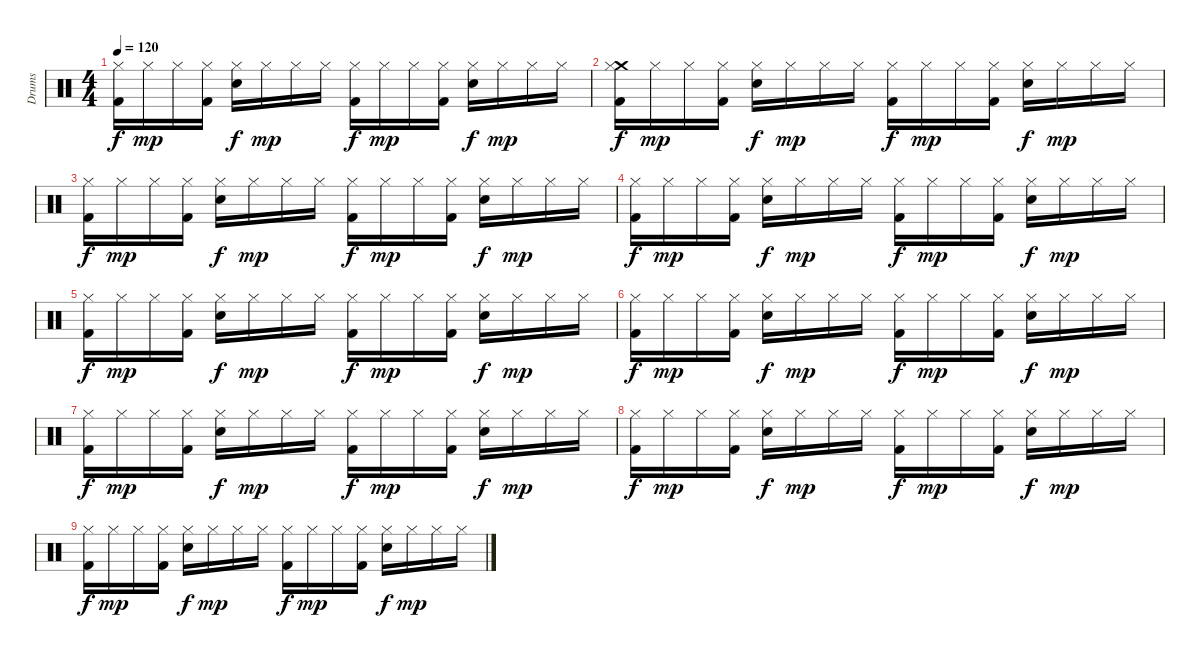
\track ("Drums" "Drums") {instrument percussion}
\staff {score}
\articulation defaults
\ts (4 4)
\tempo 120
\clef neutral
\ks c
("Kick (hit) 2" "Hi-Hat (closed)").16{dy f volume 12} "Hi-Hat (closed)".16{dy mp} "Hi-Hat (closed)".16{volume 12} ("Kick (hit) 2" "Hi-Hat (closed)").16 ("Snare (hit) 2" "Hi-Hat (closed)").16{dy f volume 12} "Hi-Hat (closed)".16{dy mp volume 12} "Hi-Hat (closed)".16 "Hi-Hat (closed)".16{volume 12} ("Kick (hit) 2" "Hi-Hat (closed)").16{dy f volume 12} "Hi-Hat (closed)".16{dy mp} "Hi-Hat (closed)".16{volume 12} ("Kick (hit) 2" "Hi-Hat (closed)").16 ("Snare (hit) 2" "Hi-Hat (closed)").16{dy f volume 12} "Hi-Hat (closed)".16{dy mp volume 11} "Hi-Hat (closed)".16 "Hi-Hat (closed)".16{volume 11} |
("Kick (hit) 2" "Crash medium (hit)" "Hi-Hat (closed)").16{dy f volume 11} "Hi-Hat (closed)".16{dy mp} "Hi-Hat (closed)".16{volume 11} ("Kick (hit) 2" "Hi-Hat (closed)").16 ("Snare (hit) 2" "Hi-Hat (closed)").16{dy f volume 11} "Hi-Hat (closed)".16{dy mp volume 11} "Hi-Hat (closed)".16 "Hi-Hat (closed)".16{volume 11} ("Kick (hit) 2" "Hi-Hat (closed)").16{dy f volume 10} "Hi-Hat (closed)".16{dy mp} "Hi-Hat (closed)".16{volume 10} ("Kick (hit) 2" "Hi-Hat (closed)").16 ("Snare (hit) 2" "Hi-Hat (closed)").16{dy f volume 10} "Hi-Hat (closed)".16{dy mp volume 10} "Hi-Hat (closed)".16 "Hi-Hat (closed)".16{volume 10} |
("Kick (hit) 2" "Hi-Hat (closed)").16{dy f volume 10} "Hi-Hat (closed)".16{dy mp} "Hi-Hat (closed)".16{volume 10} ("Kick (hit) 2" "Hi-Hat (closed)").16 ("Snare (hit) 2" "Hi-Hat (closed)").16{dy f volume 10} "Hi-Hat (closed)".16{dy mp volume 9} "Hi-Hat (closed)".16 "Hi-Hat (closed)".16{volume 9} ("Kick (hit) 2" "Hi-Hat (closed)").16{dy f volume 9} "Hi-Hat (closed)".16{dy mp} "Hi-Hat (closed)".16{volume 9} ("Kick (hit) 2" "Hi-Hat (closed)").16 ("Snare (hit) 2" "Hi-Hat (closed)").16{dy f volume 9} "Hi-Hat (closed)".16{dy mp volume 9} "Hi-Hat (closed)".16 "Hi-Hat (closed)".16{volume 8} |
("Kick (hit) 2" "Hi-Hat (closed)").16{dy f volume 8} "Hi-Hat (closed)".16{dy mp} "Hi-Hat (closed)".16{volume 8} ("Kick (hit) 2" "Hi-Hat (closed)").16 ("Snare (hit) 2" "Hi-Hat (closed)").16{dy f volume 8} "Hi-Hat (closed)".16{dy mp volume 8} "Hi-Hat (closed)".16 "Hi-Hat (closed)".16{volume 8} ("Kick (hit) 2" "Hi-Hat (closed)").16{dy f volume 8} "Hi-Hat (closed)".16{dy mp} "Hi-Hat (closed)".16{volume 8} ("Kick (hit) 2" "Hi-Hat (closed)").16 ("Snare (hit) 2" "Hi-Hat (closed)").16{dy f volume 7} "Hi-Hat (closed)".16{dy mp volume 7} "Hi-Hat (closed)".16 "Hi-Hat (closed)".16{volume 7} |
("Kick (hit) 2" "Hi-Hat (closed)").16{dy f volume 7} "Hi-Hat (closed)".16{dy mp} "Hi-Hat (closed)".16{volume 7} ("Kick (hit) 2" "Hi-Hat (closed)").16 ("Snare (hit) 2" "Hi-Hat (closed)").16{dy f volume 7} "Hi-Hat (closed)".16{dy mp volume 6} "Hi-Hat (closed)".16 "Hi-Hat (closed)".16{volume 6} ("Kick (hit) 2" "Hi-Hat (closed)").16{dy f volume 6} "Hi-Hat (closed)".16{dy mp} "Hi-Hat (closed)".16{volume 6} ("Kick (hit) 2" "Hi-Hat (closed)").16{volume 6} ("Snare (hit) 2" "Hi-Hat (closed)").16{dy f} "Hi-Hat (closed)".16{dy mp volume 6} "Hi-Hat (closed)".16 "Hi-Hat (closed)".16{volume 6} |
("Kick (hit) 2" "Hi-Hat (closed)").16{dy f volume 6} "Hi-Hat (closed)".16{dy mp} "Hi-Hat (closed)".16{volume 6} ("Kick (hit) 2" "Hi-Hat (closed)").16{volume 5} ("Snare (hit) 2" "Hi-Hat (closed)").16{dy f} "Hi-Hat (closed)".16{dy mp volume 5} "Hi-Hat (closed)".16 "Hi-Hat (closed)".16{volume 5} ("Kick (hit) 2" "Hi-Hat (closed)").16{dy f volume 5} "Hi-Hat (closed)".16{dy mp} "Hi-Hat (closed)".16{volume 5} ("Kick (hit) 2" "Hi-Hat (closed)").16{volume 5} ("Snare (hit) 2" "Hi-Hat (closed)").16{dy f} "Hi-Hat (closed)".16{dy mp volume 4} "Hi-Hat (closed)".16 "Hi-Hat (closed)".16{volume 4} |
("Kick (hit) 2" "Hi-Hat (closed)").16{dy f volume 4} "Hi-Hat (closed)".16{dy mp} "Hi-Hat (closed)".16{volume 4} ("Kick (hit) 2" "Hi-Hat (closed)").16{volume 4} ("Snare (hit) 2" "Hi-Hat (closed)").16{dy f} "Hi-Hat (closed)".16{dy mp volume 4} "Hi-Hat (closed)".16 "Hi-Hat (closed)".16{volume 4} ("Kick (hit) 2" "Hi-Hat (closed)").16{dy f volume 4} "Hi-Hat (closed)".16{dy mp} "Hi-Hat (closed)".16{volume 3} ("Kick (hit) 2" "Hi-Hat (closed)").16{volume 3} ("Snare (hit) 2" "Hi-Hat (closed)").16{dy f} "Hi-Hat (closed)".16{dy mp volume 3} "Hi-Hat (closed)".16 "Hi-Hat (closed)".16{volume 3} |
("Kick (hit) 2" "Hi-Hat (closed)").16{dy f volume 3} "Hi-Hat (closed)".16{dy mp} "Hi-Hat (closed)".16{volume 3} ("Kick (hit) 2" "Hi-Hat (closed)").16{volume 2} ("Snare (hit) 2" "Hi-Hat (closed)").16{dy f} "Hi-Hat (closed)".16{dy mp volume 2} "Hi-Hat (closed)".16 "Hi-Hat (closed)".16{volume 2} ("Kick (hit) 2" "Hi-Hat (closed)").16{dy f volume 2} "Hi-Hat (closed)".16{dy mp} "Hi-Hat (closed)".16{volume 2} ("Kick (hit) 2" "Hi-Hat (closed)").16{volume 2} ("Snare (hit) 2" "Hi-Hat (closed)").16{dy f} "Hi-Hat (closed)".16{dy mp volume 2} "Hi-Hat (closed)".16 "Hi-Hat (closed)".16{volume 2} |
("Kick (hit) 2" "Hi-Hat (closed)").16{dy f volume 1} "Hi-Hat (closed)".16{dy mp} "Hi-Hat (closed)".16{volume 1} ("Kick (hit) 2" "Hi-Hat (closed)").16{volume 1} ("Snare (hit) 2" "Hi-Hat (closed)").16{dy f} "Hi-Hat (closed)".16{dy mp volume 1} "Hi-Hat (closed)".16 "Hi-Hat (closed)".16{volume 1} ("Kick (hit) 2" "Hi-Hat (closed)").16{dy f volume 1} "Hi-Hat (closed)".16{dy mp} "Hi-Hat (closed)".16{volume 1} ("Kick (hit) 2" "Hi-Hat (closed)").16{volume 0} ("Snare (hit) 2" "Hi-Hat (closed)").16{dy f} "Hi-Hat (closed)".16{dy mp volume 0} "Hi-Hat (closed)".16 "Hi-Hat (closed)".16{volume 0}
